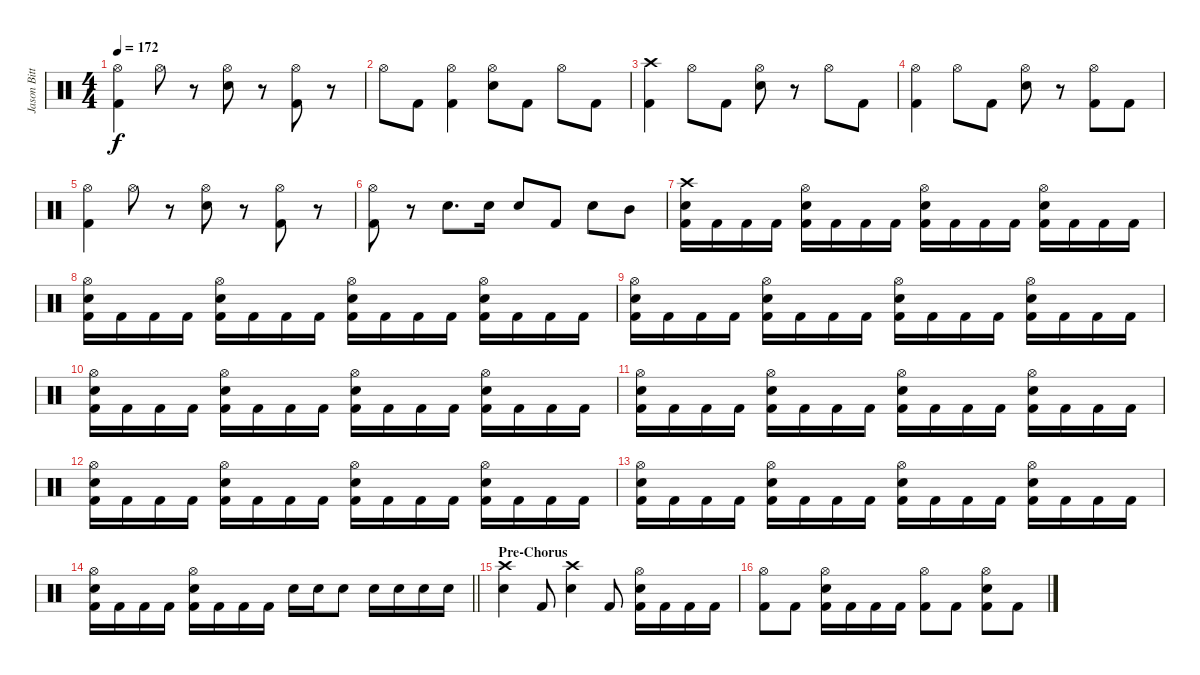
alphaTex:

\track ("Jason Bittner" "Jason Bitt") {instrument percussion}
\staff {score}
\articulation defaults
\ts (4 4)
\tempo 172
\clef neutral
\ks c
("Hi-Hat (open)" "Kick (hit) 2").4{dy f} "Hi-Hat (open)".8 r.8 ("Hi-Hat (open)" "Electric Snare (hit)").8 r.8 ("Hi-Hat (open)" "Kick (hit) 2").8 r.8 |
"Hi-Hat (open)".8 "Kick (hit) 2".8 ("Hi-Hat (open)" "Kick (hit) 2").4 ("Hi-Hat (open)" "Electric Snare (hit)").8 "Kick (hit) 2".8 "Hi-Hat (open)".8 "Kick (hit) 2".8 |
("Crash high (hit)" "Kick (hit) 2").4 "Hi-Hat (open)".8 "Kick (hit) 2".8 ("Hi-Hat (open)" "Electric Snare (hit)").8 r.8 "Hi-Hat (open)".8 "Kick (hit) 2".8 |
("Hi-Hat (open)" "Kick (hit) 2").4 "Hi-Hat (open)".8 "Kick (hit) 2".8 ("Hi-Hat (open)" "Electric Snare (hit)").8 r.8 ("Hi-Hat (open)" "Kick (hit) 2").8 "Kick (hit) 2".8 |
("Hi-Hat (open)" "Kick (hit) 2").4 "Hi-Hat (open)".8 r.8 ("Hi-Hat (open)" "Electric Snare (hit)").8 r.8 ("Hi-Hat (open)" "Kick (hit) 2").8 r.8 |
("Hi-Hat (open)" "Kick (hit) 2").8 r.8 "Electric Snare (hit)".8{d} "Electric Snare (hit)".16 "Electric Snare (hit)".8 "Kick (hit) 2".8 "Electric Snare (hit)".8 "Mid Tom (hit)".8 |
("Crash high (hit)" "Electric Snare (hit)" "Kick (hit) 2").16 "Kick (hit) 2".16 "Kick (hit) 2".16 "Kick (hit) 2".16 ("Hi-Hat (open)" "Electric Snare (hit)" "Kick (hit) 2").16 "Kick (hit) 2".16 "Kick (hit) 2".16 "Kick (hit) 2".16 ("Hi-Hat (open)" "Electric Snare (hit)" "Kick (hit) 2").16 "Kick (hit) 2".16 "Kick (hit) 2".16 "Kick (hit) 2".16 ("Hi-Hat (open)" "Electric Snare (hit)" "Kick (hit) 2").16 "Kick (hit) 2".16 "Kick (hit) 2".16 "Kick (hit) 2".16 |
("Hi-Hat (open)" "Electric Snare (hit)" "Kick (hit) 2").16 "Kick (hit) 2".16 "Kick (hit) 2".16 "Kick (hit) 2".16 ("Hi-Hat (open)" "Electric Snare (hit)" "Kick (hit) 2").16 "Kick (hit) 2".16 "Kick (hit) 2".16 "Kick (hit) 2".16 ("Hi-Hat (open)" "Electric Snare (hit)" "Kick (hit) 2").16 "Kick (hit) 2".16 "Kick (hit) 2".16 "Kick (hit) 2".16 ("Hi-Hat (open)" "Electric Snare (hit)" "Kick (hit) 2").16 "Kick (hit) 2".16 "Kick (hit) 2".16 "Kick (hit) 2".16 |
("Hi-Hat (open)" "Electric Snare (hit)" "Kick (hit) 2").16 "Kick (hit) 2".16 "Kick (hit) 2".16 "Kick (hit) 2".16 ("Hi-Hat (open)" "Electric Snare (hit)" "Kick (hit) 2").16 "Kick (hit) 2".16 "Kick (hit) 2".16 "Kick (hit) 2".16 ("Hi-Hat (open)" "Electric Snare (hit)" "Kick (hit) 2").16 "Kick (hit) 2".16 "Kick (hit) 2".16 "Kick (hit) 2".16 ("Hi-Hat (open)" "Electric Snare (hit)" "Kick (hit) 2").16 "Kick (hit) 2".16 "Kick (hit) 2".16 "Kick (hit) 2".16 |
("Hi-Hat (open)" "Electric Snare (hit)" "Kick (hit) 2").16 "Kick (hit) 2".16 "Kick (hit) 2".16 "Kick (hit) 2".16 ("Hi-Hat (open)" "Electric Snare (hit)" "Kick (hit) 2").16 "Kick (hit) 2".16 "Kick (hit) 2".16 "Kick (hit) 2".16 ("Hi-Hat (open)" "Electric Snare (hit)" "Kick (hit) 2").16 "Kick (hit) 2".16 "Kick (hit) 2".16 "Kick (hit) 2".16 ("Hi-Hat (open)" "Electric Snare (hit)" "Kick (hit) 2").16 "Kick (hit) 2".16 "Kick (hit) 2".16 "Kick (hit) 2".16 |
("Hi-Hat (open)" "Electric Snare (hit)" "Kick (hit) 2").16 "Kick (hit) 2".16 "Kick (hit) 2".16 "Kick (hit) 2".16 ("Hi-Hat (open)" "Electric Snare (hit)" "Kick (hit) 2").16 "Kick (hit) 2".16 "Kick (hit) 2".16 "Kick (hit) 2".16 ("Hi-Hat (open)" "Electric Snare (hit)" "Kick (hit) 2").16 "Kick (hit) 2".16 "Kick (hit) 2".16 "Kick (hit) 2".16 ("Hi-Hat (open)" "Electric Snare (hit)" "Kick (hit) 2").16 "Kick (hit) 2".16 "Kick (hit) 2".16 "Kick (hit) 2".16 |
("Hi-Hat (open)" "Electric Snare (hit)" "Kick (hit) 2").16 "Kick (hit) 2".16 "Kick (hit) 2".16 "Kick (hit) 2".16 ("Hi-Hat (open)" "Electric Snare (hit)" "Kick (hit) 2").16 "Kick (hit) 2".16 "Kick (hit) 2".16 "Kick (hit) 2".16 ("Hi-Hat (open)" "Electric Snare (hit)" "Kick (hit) 2").16 "Kick (hit) 2".16 "Kick (hit) 2".16 "Kick (hit) 2".16 ("Hi-Hat (open)" "Electric Snare (hit)" "Kick (hit) 2").16 "Kick (hit) 2".16 "Kick (hit) 2".16 "Kick (hit) 2".16 |
("Hi-Hat (open)" "Electric Snare (hit)" "Kick (hit) 2").16 "Kick (hit) 2".16 "Kick (hit) 2".16 "Kick (hit) 2".16 ("Hi-Hat (open)" "Electric Snare (hit)" "Kick (hit) 2").16 "Kick (hit) 2".16 "Kick (hit) 2".16 "Kick (hit) 2".16 ("Hi-Hat (open)" "Electric Snare (hit)" "Kick (hit) 2").16 "Kick (hit) 2".16 "Kick (hit) 2".16 "Kick (hit) 2".16 ("Hi-Hat (open)" "Electric Snare (hit)" "Kick (hit) 2").16 "Kick (hit) 2".16 "Kick (hit) 2".16 "Kick (hit) 2".16 |
\barLineRight lightlight
("Hi-Hat (open)" "Electric Snare (hit)" "Kick (hit) 2").16 "Kick (hit) 2".16 "Kick (hit) 2".16 "Kick (hit) 2".16 ("Hi-Hat (open)" "Electric Snare (hit)" "Kick (hit) 2").16 "Kick (hit) 2".16 "Kick (hit) 2".16 "Kick (hit) 2".16 "Electric Snare (hit)".16 "Electric Snare (hit)".16 "Electric Snare (hit)".8 "Electric Snare (hit)".16 "Electric Snare (hit)".16 "Electric Snare (hit)".16 "Electric Snare (hit)".16 |
\section ("" "Pre-Chorus")
("Crash high (hit)" "Electric Snare (hit)").4 "Kick (hit) 2".8 ("Crash high (hit)" "Electric Snare (hit)").4 "Kick (hit) 2".8 ("Hi-Hat (open)" "Electric Snare (hit)" "Kick (hit) 2").16 "Kick (hit) 2".16 "Kick (hit) 2".16 "Kick (hit) 2".16 |
("Hi-Hat (open)" "Kick (hit) 2").8 "Kick (hit) 2".8 ("Hi-Hat (open)" "Electric Snare (hit)" "Kick (hit) 2").16 "Kick (hit) 2".16 "Kick (hit) 2".16 "Kick (hit) 2".16 ("Hi-Hat (open)" "Kick (hit) 2").8 "Kick (hit) 2".8 ("Hi-Hat (open)" "Electric Snare (hit)" "Kick (hit) 2").8 "Kick (hit) 2".8
